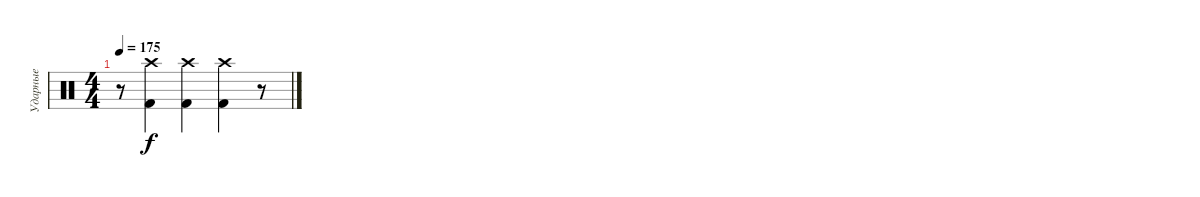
\track ("Ударные" "Ударные") {instrument percussion}
\staff
\articulation defaults
\ts (4 4)
\tempo 175
\clef neutral
\ks c
r.8{dy f} ("Kick (hit) 2" "Crash high (hit)").4 ("Kick (hit) 2" "Crash high (hit)").4 ("Kick (hit) 2" "Crash high (hit)").4 r.8
